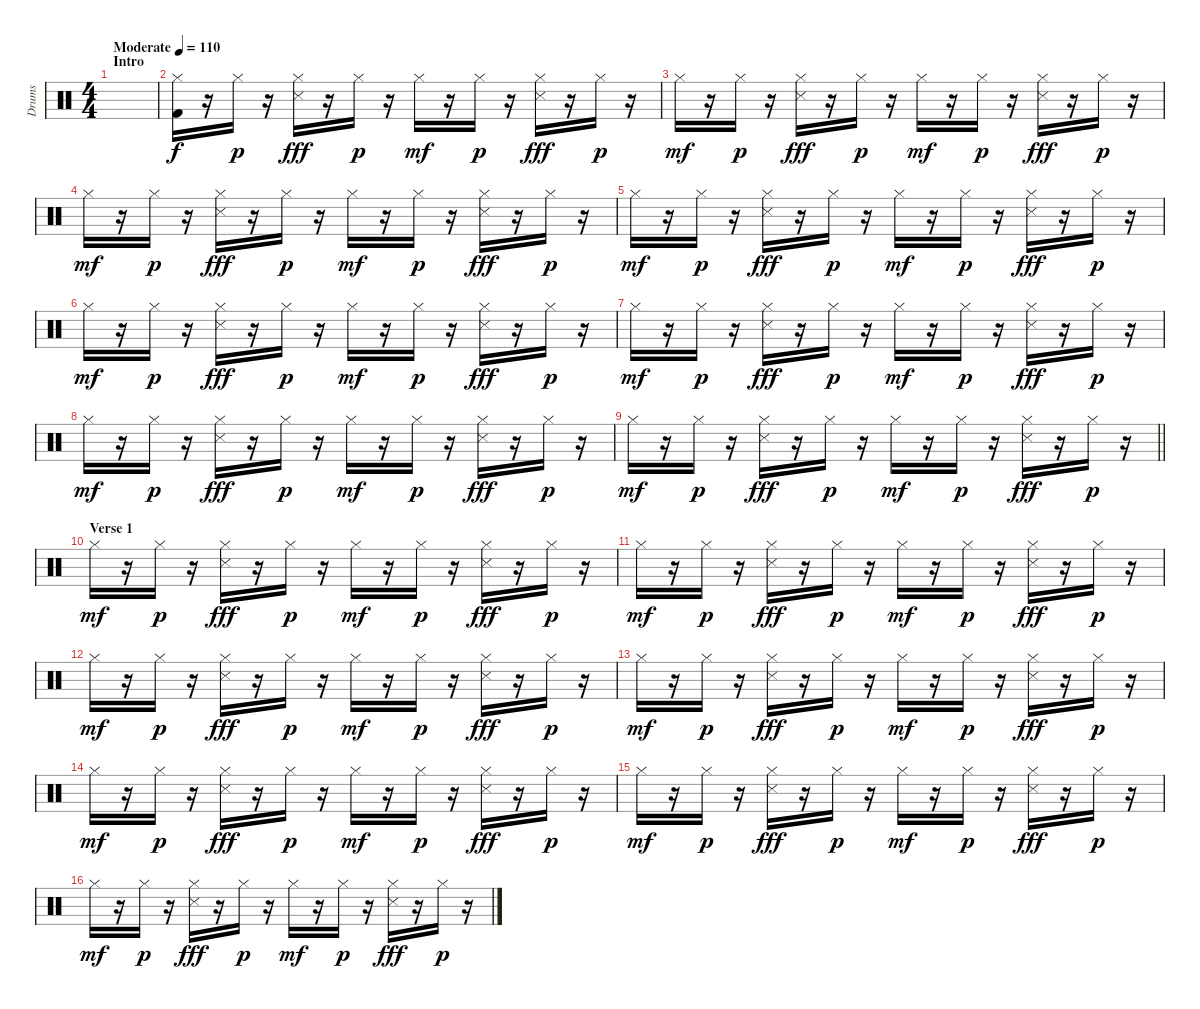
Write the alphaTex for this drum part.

\track ("Drums" "Drums") {instrument percussion}
\staff {score}
\articulation defaults
\ts (4 4)
\section ("" "Intro")
\tempo (110 "Moderate")
\clef neutral
\ks c
|
("Hi-Hat (closed)" "Kick (hit) 2").16 r.16 "Hi-Hat (closed)".16{dy p} r.16 ("Hi-Hat (closed)" "Snare (side stick) 3").16{dy fff} r.16 "Hi-Hat (closed)".16{dy p} r.16 "Hi-Hat (closed)".16{dy mf} r.16 "Hi-Hat (closed)".16{dy p} r.16 ("Hi-Hat (closed)" "Snare (side stick) 3").16{dy fff} r.16 "Hi-Hat (closed)".16{dy p} r.16 |
"Hi-Hat (closed)".16{dy mf} r.16 "Hi-Hat (closed)".16{dy p} r.16 ("Hi-Hat (closed)" "Snare (side stick) 3").16{dy fff} r.16 "Hi-Hat (closed)".16{dy p} r.16 "Hi-Hat (closed)".16{dy mf} r.16 "Hi-Hat (closed)".16{dy p} r.16 ("Hi-Hat (closed)" "Snare (side stick) 3").16{dy fff} r.16 "Hi-Hat (closed)".16{dy p} r.16 |
"Hi-Hat (closed)".16{dy mf} r.16 "Hi-Hat (closed)".16{dy p} r.16 ("Hi-Hat (closed)" "Snare (side stick) 3").16{dy fff} r.16 "Hi-Hat (closed)".16{dy p} r.16 "Hi-Hat (closed)".16{dy mf} r.16 "Hi-Hat (closed)".16{dy p} r.16 ("Hi-Hat (closed)" "Snare (side stick) 3").16{dy fff} r.16 "Hi-Hat (closed)".16{dy p} r.16 |
"Hi-Hat (closed)".16{dy mf} r.16 "Hi-Hat (closed)".16{dy p} r.16 ("Hi-Hat (closed)" "Snare (side stick) 3").16{dy fff} r.16 "Hi-Hat (closed)".16{dy p} r.16 "Hi-Hat (closed)".16{dy mf} r.16 "Hi-Hat (closed)".16{dy p} r.16 ("Hi-Hat (closed)" "Snare (side stick) 3").16{dy fff} r.16 "Hi-Hat (closed)".16{dy p} r.16 |
"Hi-Hat (closed)".16{dy mf} r.16 "Hi-Hat (closed)".16{dy p} r.16 ("Hi-Hat (closed)" "Snare (side stick) 3").16{dy fff} r.16 "Hi-Hat (closed)".16{dy p} r.16 "Hi-Hat (closed)".16{dy mf} r.16 "Hi-Hat (closed)".16{dy p} r.16 ("Hi-Hat (closed)" "Snare (side stick) 3").16{dy fff} r.16 "Hi-Hat (closed)".16{dy p} r.16 |
"Hi-Hat (closed)".16{dy mf} r.16 "Hi-Hat (closed)".16{dy p} r.16 ("Hi-Hat (closed)" "Snare (side stick) 3").16{dy fff} r.16 "Hi-Hat (closed)".16{dy p} r.16 "Hi-Hat (closed)".16{dy mf} r.16 "Hi-Hat (closed)".16{dy p} r.16 ("Hi-Hat (closed)" "Snare (side stick) 3").16{dy fff} r.16 "Hi-Hat (closed)".16{dy p} r.16 |
"Hi-Hat (closed)".16{dy mf} r.16 "Hi-Hat (closed)".16{dy p} r.16 ("Hi-Hat (closed)" "Snare (side stick) 3").16{dy fff} r.16 "Hi-Hat (closed)".16{dy p} r.16 "Hi-Hat (closed)".16{dy mf} r.16 "Hi-Hat (closed)".16{dy p} r.16 ("Hi-Hat (closed)" "Snare (side stick) 3").16{dy fff} r.16 "Hi-Hat (closed)".16{dy p} r.16 |
\barLineRight lightlight "Hi-Hat (closed)".16{dy mf}
r.16 "Hi-Hat (closed)".16{dy p} r.16 ("Hi-Hat (closed)" "Snare (side stick) 3").16{dy fff} r.16 "Hi-Hat (closed)".16{dy p} r.16 "Hi-Hat (closed)".16{dy mf} r.16 "Hi-Hat (closed)".16{dy p} r.16 ("Hi-Hat (closed)" "Snare (side stick) 3").16{dy fff} r.16 "Hi-Hat (closed)".16{dy p} r.16 |
\section ("" "Verse 1")
"Hi-Hat (closed)".16{dy mf} r.16 "Hi-Hat (closed)".16{dy p} r.16 ("Hi-Hat (closed)" "Snare (side stick) 3").16{dy fff} r.16 "Hi-Hat (closed)".16{dy p} r.16 "Hi-Hat (closed)".16{dy mf} r.16 "Hi-Hat (closed)".16{dy p} r.16 ("Hi-Hat (closed)" "Snare (side stick) 3").16{dy fff} r.16 "Hi-Hat (closed)".16{dy p} r.16 |
"Hi-Hat (closed)".16{dy mf} r.16 "Hi-Hat (closed)".16{dy p} r.16 ("Hi-Hat (closed)" "Snare (side stick) 3").16{dy fff} r.16 "Hi-Hat (closed)".16{dy p} r.16 "Hi-Hat (closed)".16{dy mf} r.16 "Hi-Hat (closed)".16{dy p} r.16 ("Hi-Hat (closed)" "Snare (side stick) 3").16{dy fff} r.16 "Hi-Hat (closed)".16{dy p} r.16 |
"Hi-Hat (closed)".16{dy mf} r.16 "Hi-Hat (closed)".16{dy p} r.16 ("Hi-Hat (closed)" "Snare (side stick) 3").16{dy fff} r.16 "Hi-Hat (closed)".16{dy p} r.16 "Hi-Hat (closed)".16{dy mf} r.16 "Hi-Hat (closed)".16{dy p} r.16 ("Hi-Hat (closed)" "Snare (side stick) 3").16{dy fff} r.16 "Hi-Hat (closed)".16{dy p} r.16 |
"Hi-Hat (closed)".16{dy mf} r.16 "Hi-Hat (closed)".16{dy p} r.16 ("Hi-Hat (closed)" "Snare (side stick) 3").16{dy fff} r.16 "Hi-Hat (closed)".16{dy p} r.16 "Hi-Hat (closed)".16{dy mf} r.16 "Hi-Hat (closed)".16{dy p} r.16 ("Hi-Hat (closed)" "Snare (side stick) 3").16{dy fff} r.16 "Hi-Hat (closed)".16{dy p} r.16 |
"Hi-Hat (closed)".16{dy mf} r.16 "Hi-Hat (closed)".16{dy p} r.16 ("Hi-Hat (closed)" "Snare (side stick) 3").16{dy fff} r.16 "Hi-Hat (closed)".16{dy p} r.16 "Hi-Hat (closed)".16{dy mf} r.16 "Hi-Hat (closed)".16{dy p} r.16 ("Hi-Hat (closed)" "Snare (side stick) 3").16{dy fff} r.16 "Hi-Hat (closed)".16{dy p} r.16 |
"Hi-Hat (closed)".16{dy mf} r.16 "Hi-Hat (closed)".16{dy p} r.16 ("Hi-Hat (closed)" "Snare (side stick) 3").16{dy fff} r.16 "Hi-Hat (closed)".16{dy p} r.16 "Hi-Hat (closed)".16{dy mf} r.16 "Hi-Hat (closed)".16{dy p} r.16 ("Hi-Hat (closed)" "Snare (side stick) 3").16{dy fff} r.16 "Hi-Hat (closed)".16{dy p} r.16 |
"Hi-Hat (closed)".16{dy mf} r.16 "Hi-Hat (closed)".16{dy p} r.16 ("Hi-Hat (closed)" "Snare (side stick) 3").16{dy fff} r.16 "Hi-Hat (closed)".16{dy p} r.16 "Hi-Hat (closed)".16{dy mf} r.16 "Hi-Hat (closed)".16{dy p} r.16 ("Hi-Hat (closed)" "Snare (side stick) 3").16{dy fff} r.16 "Hi-Hat (closed)".16{dy p} r.16
